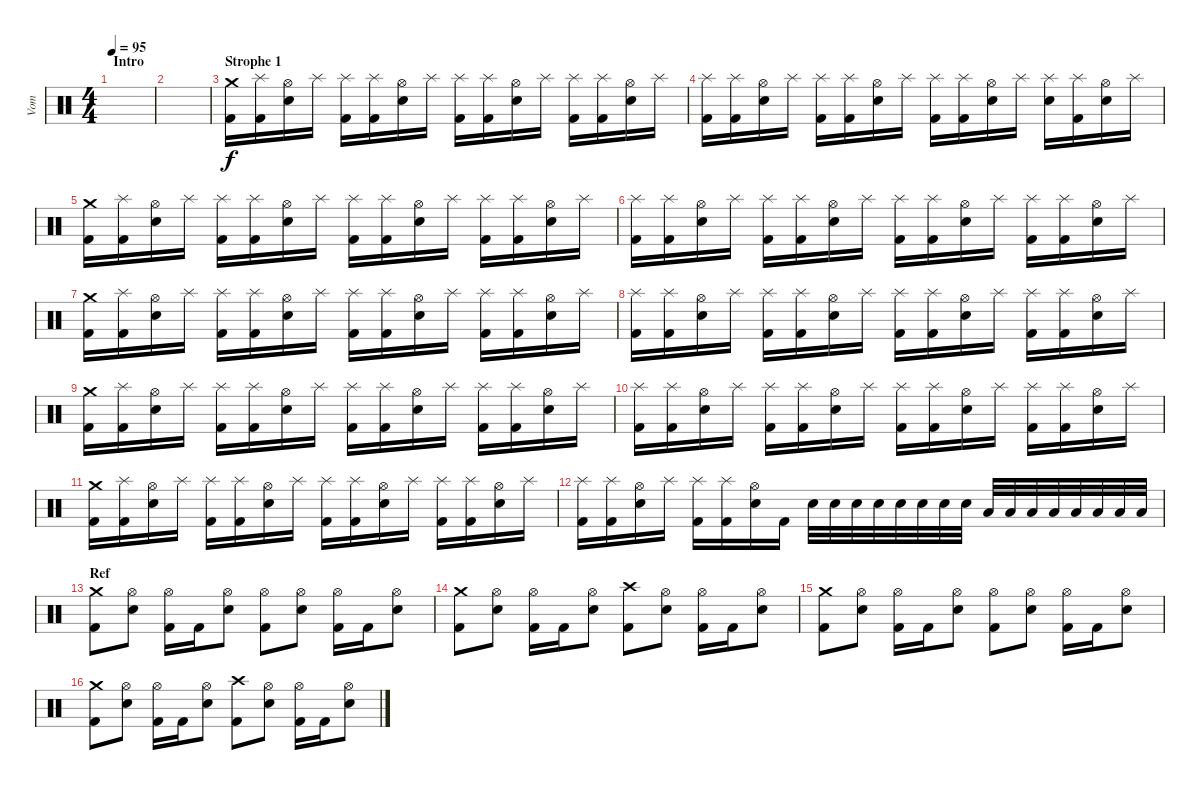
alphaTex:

\track ("Vom" "Vom") {instrument percussion}
\staff {score}
\articulation defaults
\ts (4 4)
\section ("" "Intro")
\tempo 95
\clef neutral
\ks c
|
|
\section ("" "Strophe 1")
("Kick (hit) 2" "Crash medium (hit)").16 ("Kick (hit) 2" "Splash (hit)").16 ("Snare (hit) 2" "Hi-Hat (open)").16 "Splash (hit)".16 ("Kick (hit) 2" "Splash (hit)").16 ("Kick (hit) 2" "Splash (hit)").16 ("Snare (hit) 2" "Hi-Hat (open)").16 "Splash (hit)".16 ("Kick (hit) 2" "Splash (hit)").16 ("Kick (hit) 2" "Splash (hit)").16 ("Snare (hit) 2" "Hi-Hat (open)").16 "Splash (hit)".16 ("Kick (hit) 2" "Splash (hit)").16 ("Kick (hit) 2" "Splash (hit)").16 ("Snare (hit) 2" "Hi-Hat (open)").16 "Splash (hit)".16 |
("Kick (hit) 2" "Splash (hit)").16 ("Kick (hit) 2" "Splash (hit)").16 ("Snare (hit) 2" "Hi-Hat (open)").16 "Splash (hit)".16 ("Kick (hit) 2" "Splash (hit)").16 ("Kick (hit) 2" "Splash (hit)").16 ("Snare (hit) 2" "Hi-Hat (open)").16 "Splash (hit)".16 ("Kick (hit) 2" "Splash (hit)").16 ("Kick (hit) 2" "Splash (hit)").16 ("Snare (hit) 2" "Hi-Hat (open)").16 "Splash (hit)".16 ("Snare (hit) 2" "Splash (hit)").16 ("Kick (hit) 2" "Splash (hit)").16 ("Snare (hit) 2" "Hi-Hat (open)").16 "Splash (hit)".16 |
("Kick (hit) 2" "Crash medium (hit)").16 ("Kick (hit) 2" "Splash (hit)").16 ("Snare (hit) 2" "Hi-Hat (open)").16 "Splash (hit)".16 ("Kick (hit) 2" "Splash (hit)").16 ("Kick (hit) 2" "Splash (hit)").16 ("Snare (hit) 2" "Hi-Hat (open)").16 "Splash (hit)".16 ("Kick (hit) 2" "Splash (hit)").16 ("Kick (hit) 2" "Splash (hit)").16 ("Snare (hit) 2" "Hi-Hat (open)").16 "Splash (hit)".16 ("Kick (hit) 2" "Splash (hit)").16 ("Kick (hit) 2" "Splash (hit)").16 ("Snare (hit) 2" "Hi-Hat (open)").16 "Splash (hit)".16 |
("Kick (hit) 2" "Splash (hit)").16 ("Kick (hit) 2" "Splash (hit)").16 ("Snare (hit) 2" "Hi-Hat (open)").16 "Splash (hit)".16 ("Kick (hit) 2" "Splash (hit)").16 ("Kick (hit) 2" "Splash (hit)").16 ("Snare (hit) 2" "Hi-Hat (open)").16 "Splash (hit)".16 ("Kick (hit) 2" "Splash (hit)").16 ("Kick (hit) 2" "Splash (hit)").16 ("Snare (hit) 2" "Hi-Hat (open)").16 "Splash (hit)".16 ("Kick (hit) 2" "Splash (hit)").16 ("Kick (hit) 2" "Splash (hit)").16 ("Snare (hit) 2" "Hi-Hat (open)").16 "Splash (hit)".16 |
("Kick (hit) 2" "Crash medium (hit)").16 ("Kick (hit) 2" "Splash (hit)").16 ("Snare (hit) 2" "Hi-Hat (open)").16 "Splash (hit)".16 ("Kick (hit) 2" "Splash (hit)").16 ("Kick (hit) 2" "Splash (hit)").16 ("Snare (hit) 2" "Hi-Hat (open)").16 "Splash (hit)".16 ("Kick (hit) 2" "Splash (hit)").16 ("Kick (hit) 2" "Splash (hit)").16 ("Snare (hit) 2" "Hi-Hat (open)").16 "Splash (hit)".16 ("Kick (hit) 2" "Splash (hit)").16 ("Kick (hit) 2" "Splash (hit)").16 ("Snare (hit) 2" "Hi-Hat (open)").16 "Splash (hit)".16 |
("Kick (hit) 2" "Splash (hit)").16 ("Kick (hit) 2" "Splash (hit)").16 ("Snare (hit) 2" "Hi-Hat (open)").16 "Splash (hit)".16 ("Kick (hit) 2" "Splash (hit)").16 ("Kick (hit) 2" "Splash (hit)").16 ("Snare (hit) 2" "Hi-Hat (open)").16 "Splash (hit)".16 ("Kick (hit) 2" "Splash (hit)").16 ("Kick (hit) 2" "Splash (hit)").16 ("Snare (hit) 2" "Hi-Hat (open)").16 "Splash (hit)".16 ("Kick (hit) 2" "Splash (hit)").16 ("Kick (hit) 2" "Splash (hit)").16 ("Snare (hit) 2" "Hi-Hat (open)").16 "Splash (hit)".16 |
("Kick (hit) 2" "Crash medium (hit)").16 ("Kick (hit) 2" "Splash (hit)").16 ("Snare (hit) 2" "Hi-Hat (open)").16 "Splash (hit)".16 ("Kick (hit) 2" "Splash (hit)").16 ("Kick (hit) 2" "Splash (hit)").16 ("Snare (hit) 2" "Hi-Hat (open)").16 "Splash (hit)".16 ("Kick (hit) 2" "Splash (hit)").16 ("Kick (hit) 2" "Splash (hit)").16 ("Snare (hit) 2" "Hi-Hat (open)").16 "Splash (hit)".16 ("Kick (hit) 2" "Splash (hit)").16 ("Kick (hit) 2" "Splash (hit)").16 ("Snare (hit) 2" "Hi-Hat (open)").16 "Splash (hit)".16 |
("Kick (hit) 2" "Splash (hit)").16 ("Kick (hit) 2" "Splash (hit)").16 ("Snare (hit) 2" "Hi-Hat (open)").16 "Splash (hit)".16 ("Kick (hit) 2" "Splash (hit)").16 ("Kick (hit) 2" "Splash (hit)").16 ("Snare (hit) 2" "Hi-Hat (open)").16 "Splash (hit)".16 ("Kick (hit) 2" "Splash (hit)").16 ("Kick (hit) 2" "Splash (hit)").16 ("Snare (hit) 2" "Hi-Hat (open)").16 "Splash (hit)".16 ("Kick (hit) 2" "Splash (hit)").16 ("Kick (hit) 2" "Splash (hit)").16 ("Snare (hit) 2" "Hi-Hat (open)").16 "Splash (hit)".16 |
("Kick (hit) 2" "Crash medium (hit)").16 ("Kick (hit) 2" "Splash (hit)").16 ("Snare (hit) 2" "Hi-Hat (open)").16 "Splash (hit)".16 ("Kick (hit) 2" "Splash (hit)").16 ("Kick (hit) 2" "Splash (hit)").16 ("Snare (hit) 2" "Hi-Hat (open)").16 "Splash (hit)".16 ("Kick (hit) 2" "Splash (hit)").16 ("Kick (hit) 2" "Splash (hit)").16 ("Snare (hit) 2" "Hi-Hat (open)").16 "Splash (hit)".16 ("Kick (hit) 2" "Splash (hit)").16 ("Kick (hit) 2" "Splash (hit)").16 ("Snare (hit) 2" "Hi-Hat (open)").16 "Splash (hit)".16 |
("Kick (hit) 2" "Splash (hit)").16 ("Kick (hit) 2" "Splash (hit)").16 ("Snare (hit) 2" "Hi-Hat (open)").16 "Splash (hit)".16 ("Kick (hit) 2" "Splash (hit)").16 ("Kick (hit) 2" "Splash (hit)").16 ("Snare (hit) 2" "Hi-Hat (open)").16 "Kick (hit) 2".16 "Snare (hit) 2".32 "Snare (hit) 2".32 "Snare (hit) 2".32 "Snare (hit) 2".32 "Snare (hit) 2".32 "Snare (hit) 2".32 "Snare (hit) 2".32 "Snare (hit) 2".32 "Low Tom (hit)".32 "Low Tom (hit)".32 "Low Tom (hit)".32 "Low Tom (hit)".32 "Low Tom (hit)".32 "Low Tom (hit)".32 "Low Tom (hit)".32 "Low Tom (hit)".32 |
\section ("" "Ref")
("Crash medium (hit)" "Kick (hit) 2").8 ("Hi-Hat (open)" "Snare (hit) 2").8 ("Hi-Hat (open)" "Kick (hit) 2").16 "Kick (hit) 2".16 ("Hi-Hat (open)" "Snare (hit) 2").8 ("Hi-Hat (open)" "Kick (hit) 2").8 ("Hi-Hat (open)" "Snare (hit) 2").8 ("Hi-Hat (open)" "Kick (hit) 2").16 "Kick (hit) 2".16 ("Hi-Hat (open)" "Snare (hit) 2").8 |
("Crash medium (hit)" "Kick (hit) 2").8 ("Hi-Hat (open)" "Snare (hit) 2").8 ("Hi-Hat (open)" "Kick (hit) 2").16 "Kick (hit) 2".16 ("Hi-Hat (open)" "Snare (hit) 2").8 ("Crash high (hit)" "Kick (hit) 2").8 ("Hi-Hat (open)" "Snare (hit) 2").8 ("Hi-Hat (open)" "Kick (hit) 2").16 "Kick (hit) 2".16 ("Hi-Hat (open)" "Snare (hit) 2").8 |
("Crash medium (hit)" "Kick (hit) 2").8 ("Hi-Hat (open)" "Snare (hit) 2").8 ("Hi-Hat (open)" "Kick (hit) 2").16 "Kick (hit) 2".16 ("Hi-Hat (open)" "Snare (hit) 2").8 ("Hi-Hat (open)" "Kick (hit) 2").8 ("Hi-Hat (open)" "Snare (hit) 2").8 ("Hi-Hat (open)" "Kick (hit) 2").16 "Kick (hit) 2".16 ("Hi-Hat (open)" "Snare (hit) 2").8 |
("Crash medium (hit)" "Kick (hit) 2").8 ("Hi-Hat (open)" "Snare (hit) 2").8 ("Hi-Hat (open)" "Kick (hit) 2").16 "Kick (hit) 2".16 ("Hi-Hat (open)" "Snare (hit) 2").8 ("Crash high (hit)" "Kick (hit) 2").8 ("Hi-Hat (open)" "Snare (hit) 2").8 ("Hi-Hat (open)" "Kick (hit) 2").16 "Kick (hit) 2".16 ("Hi-Hat (open)" "Snare (hit) 2").8
